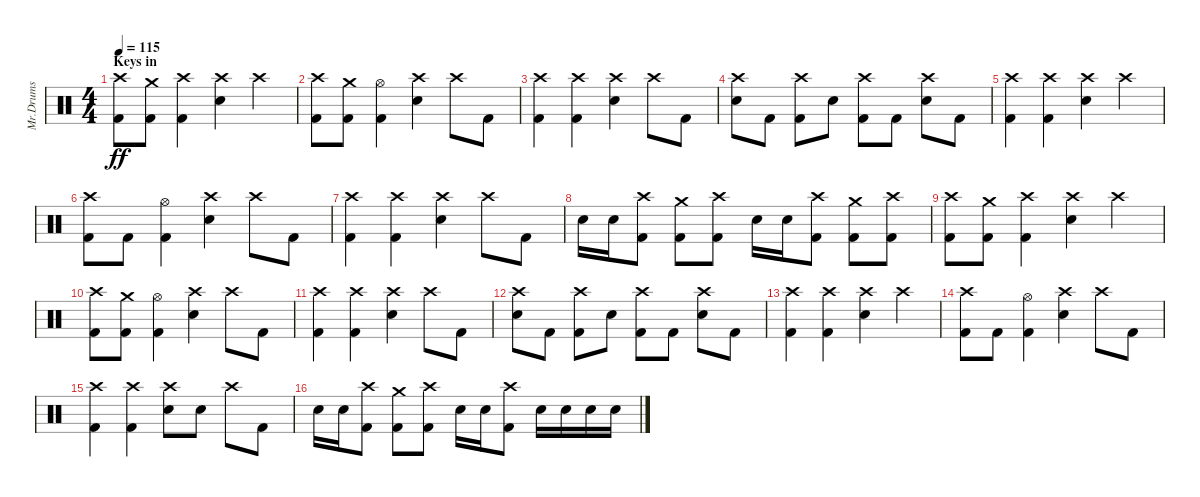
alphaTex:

\track ("Mr.Drums" "Mr.Drums") {instrument percussion}
\staff {score}
\articulation defaults
\ts (4 4)
\section ("" "Keys in ")
\tempo 115
\clef neutral
\ks c
("Crash high (hit)" "Kick (hit) 2").8{dy ff} ("Crash medium (hit)" "Kick (hit) 2").8 ("Crash high (hit)" "Kick (hit) 2").4 ("Crash high (hit)" "Electric Snare (hit)").4 "Crash high (hit)".4 |
("Crash high (hit)" "Kick (hit) 2").8 ("Crash medium (hit)" "Kick (hit) 2").8 ("Hi-Hat (open)" "Kick (hit) 2").4 ("Crash high (hit)" "Electric Snare (hit)").4 "Crash high (hit)".8 "Kick (hit) 2".8 |
("Crash high (hit)" "Kick (hit) 2").4 ("Crash high (hit)" "Kick (hit) 2").4 ("Crash high (hit)" "Electric Snare (hit)").4 "Crash high (hit)".8 "Kick (hit) 2".8 |
("Crash high (hit)" "Electric Snare (hit)").8 "Kick (hit) 2".8 ("Crash high (hit)" "Kick (hit) 2").8 "Electric Snare (hit)".8 ("Crash high (hit)" "Kick (hit) 2").8 "Kick (hit) 2".8 ("Crash high (hit)" "Electric Snare (hit)").8 "Kick (hit) 2".8 |
("Crash high (hit)" "Kick (hit) 2").4 ("Crash high (hit)" "Kick (hit) 2").4 ("Crash high (hit)" "Electric Snare (hit)").4 "Crash high (hit)".4 |
("Crash high (hit)" "Kick (hit) 2").8 "Kick (hit) 2".8 ("Hi-Hat (open)" "Kick (hit) 2").4 ("Crash high (hit)" "Electric Snare (hit)").4 "Crash high (hit)".8 "Kick (hit) 2".8 |
("Crash high (hit)" "Kick (hit) 2").4 ("Crash high (hit)" "Kick (hit) 2").4 ("Crash high (hit)" "Electric Snare (hit)").4 "Crash high (hit)".8 "Kick (hit) 2".8 |
"Electric Snare (hit)".16 "Electric Snare (hit)".16 ("Crash high (hit)" "Kick (hit) 2").8 ("Crash medium (hit)" "Kick (hit) 2").8 ("Crash high (hit)" "Kick (hit) 2").8 "Electric Snare (hit)".16 "Electric Snare (hit)".16 ("Crash high (hit)" "Kick (hit) 2").8 ("Crash medium (hit)" "Kick (hit) 2").8 ("Crash high (hit)" "Kick (hit) 2").8 |
("Crash high (hit)" "Kick (hit) 2").8 ("Crash medium (hit)" "Kick (hit) 2").8 ("Crash high (hit)" "Kick (hit) 2").4 ("Crash high (hit)" "Electric Snare (hit)").4 "Crash high (hit)".4 |
("Crash high (hit)" "Kick (hit) 2").8 ("Crash medium (hit)" "Kick (hit) 2").8 ("Hi-Hat (open)" "Kick (hit) 2").4 ("Crash high (hit)" "Electric Snare (hit)").4 "Crash high (hit)".8 "Kick (hit) 2".8 |
("Crash high (hit)" "Kick (hit) 2").4 ("Crash high (hit)" "Kick (hit) 2").4 ("Crash high (hit)" "Electric Snare (hit)").4 "Crash high (hit)".8 "Kick (hit) 2".8 |
("Crash high (hit)" "Electric Snare (hit)").8 "Kick (hit) 2".8 ("Crash high (hit)" "Kick (hit) 2").8 "Electric Snare (hit)".8 ("Crash high (hit)" "Kick (hit) 2").8 "Kick (hit) 2".8 ("Crash high (hit)" "Electric Snare (hit)").8 "Kick (hit) 2".8 |
("Crash high (hit)" "Kick (hit) 2").4 ("Crash high (hit)" "Kick (hit) 2").4 ("Crash high (hit)" "Electric Snare (hit)").4 "Crash high (hit)".4 |
("Crash high (hit)" "Kick (hit) 2").8 "Kick (hit) 2".8 ("Hi-Hat (open)" "Kick (hit) 2").4 ("Crash high (hit)" "Electric Snare (hit)").4 "Crash high (hit)".8 "Kick (hit) 2".8 |
("Crash high (hit)" "Kick (hit) 2").4 ("Crash high (hit)" "Kick (hit) 2").4 ("Crash high (hit)" "Electric Snare (hit)").8 "Electric Snare (hit)".8 "Crash high (hit)".8 "Kick (hit) 2".8 |
"Electric Snare (hit)".16 "Electric Snare (hit)".16 ("Crash high (hit)" "Kick (hit) 2").8 ("Crash medium (hit)" "Kick (hit) 2").8 ("Crash high (hit)" "Kick (hit) 2").8 "Electric Snare (hit)".16 "Electric Snare (hit)".16 ("Crash high (hit)" "Kick (hit) 2").8 "Electric Snare (hit)".16 "Electric Snare (hit)".16 "Electric Snare (hit)".16 "Electric Snare (hit)".16
